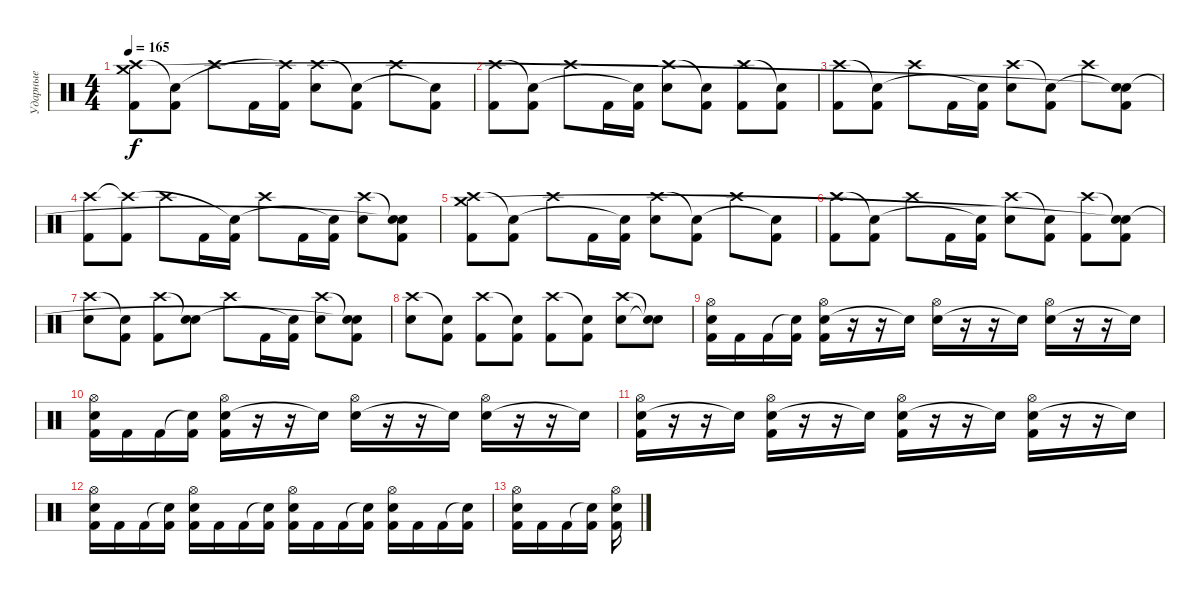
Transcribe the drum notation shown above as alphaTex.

\track ("Ударные" "Ударные") {instrument percussion}
\staff {score}
\articulation defaults
\ts (4 4)
\tempo 165
\clef neutral
\ks c
("Kick (hit) 2" "Crash high (hit)" "Crash medium (hit)").8{dy f} ("Kick (hit) 2" "Snare (hit)"{t}).8 "Crash high (hit)".8 "Kick (hit) 2".16 ("Kick (hit) 2" "Crash high (hit)"{t}).16 ("Electric Snare (hit)" "Crash high (hit)").8 ("Kick (hit) 2" "Snare (hit)"{t}).8 "Crash high (hit)".8 ("Kick (hit) 2" "Snare (hit)"{t}).8 |
("Kick (hit) 2" "Crash high (hit)").8 ("Kick (hit) 2" "Snare (hit)"{t}).8 "Crash high (hit)".8 "Kick (hit) 2".16 ("Kick (hit) 2" "Snare (hit)"{t}).16 ("Electric Snare (hit)" "Crash high (hit)").8 ("Kick (hit) 2" "Snare (hit)"{t}).8 ("Kick (hit) 2" "Crash high (hit)").8 ("Kick (hit) 2" "Snare (hit)"{t}).8 |
("Kick (hit) 2" "Crash high (hit)").8 ("Kick (hit) 2" "Snare (hit)"{t}).8 "Crash high (hit)".8 "Kick (hit) 2".16 ("Kick (hit) 2" "Snare (hit)"{t}).16 ("Electric Snare (hit)" "Crash high (hit)").8 ("Kick (hit) 2" "Snare (hit)"{t}).8 "Crash high (hit)".8 ("Kick (hit) 2" "Snare (hit)"{t} "Snare (hit)"{t}).8 |
("Kick (hit) 2" "Crash high (hit)").8 ("Kick (hit) 2" "Crash high (hit)"{t}).8 "Crash high (hit)".8 "Kick (hit) 2".16 ("Kick (hit) 2" "Snare (hit)"{t}).16 "Crash high (hit)".8 "Kick (hit) 2".16 ("Kick (hit) 2" "Snare (hit)"{t}).16 ("Electric Snare (hit)" "Crash high (hit)").8 ("Kick (hit) 2" "Snare (hit)"{t} "Snare (hit)"{t}).8 |
("Kick (hit) 2" "Crash high (hit)" "Crash medium (hit)").8 ("Kick (hit) 2" "Snare (hit)"{t}).8 "Crash high (hit)".8 "Kick (hit) 2".16 ("Kick (hit) 2" "Snare (hit)"{t}).16 ("Electric Snare (hit)" "Crash high (hit)").8 ("Kick (hit) 2" "Snare (hit)"{t}).8 "Crash high (hit)".8 ("Kick (hit) 2" "Snare (hit)"{t}).8 |
("Kick (hit) 2" "Crash high (hit)").8 ("Kick (hit) 2" "Snare (hit)"{t}).8 "Crash high (hit)".8 "Kick (hit) 2".16 ("Kick (hit) 2" "Snare (hit)"{t}).16 ("Electric Snare (hit)" "Crash high (hit)").8 ("Kick (hit) 2" "Snare (hit)"{t}).8 ("Kick (hit) 2" "Crash high (hit)").8 ("Kick (hit) 2" "Snare (hit)"{t} "Snare (hit)"{t}).8 |
("Electric Snare (hit)" "Crash high (hit)").8 ("Kick (hit) 2" "Snare (hit)"{t}).8 ("Kick (hit) 2" "Crash high (hit)").8 ("Electric Snare (hit)" "Snare (hit)"{t}).8 "Crash high (hit)".8 "Kick (hit) 2".16 ("Kick (hit) 2" "Snare (hit)"{t}).16 ("Electric Snare (hit)" "Crash high (hit)").8 ("Kick (hit) 2" "Snare (hit)"{t} "Snare (hit)"{t}).8 |
("Electric Snare (hit)" "Crash high (hit)").8 ("Kick (hit) 2" "Snare (hit)"{t}).8 ("Kick (hit) 2" "Crash high (hit)").8 ("Kick (hit) 2" "Snare (hit)"{t}).8 ("Kick (hit) 2" "Crash high (hit)").8 ("Kick (hit) 2" "Snare (hit)"{t}).8 ("Electric Snare (hit)" "Crash high (hit)").8 ("Snare (hit)"{t} "Snare (hit)"{t}).8 |
("Electric Snare (hit)" "Hi-Hat (open)" "Kick (hit) 2").16 "Kick (hit) 2".16 "Kick (hit) 2".16 ("Snare (hit)"{t} "Kick (hit) 2").16 ("Electric Snare (hit)" "Hi-Hat (open)" "Kick (hit) 2").16 r.16 r.16 "Snare (hit)"{t}.16 ("Electric Snare (hit)" "Hi-Hat (open)").16 r.16 r.16 "Snare (hit)"{t}.16 ("Electric Snare (hit)" "Hi-Hat (open)").16 r.16 r.16 "Snare (hit)"{t}.16 |
("Electric Snare (hit)" "Hi-Hat (open)" "Kick (hit) 2").16 "Kick (hit) 2".16 "Kick (hit) 2".16 ("Snare (hit)"{t} "Kick (hit) 2").16 ("Electric Snare (hit)" "Hi-Hat (open)" "Kick (hit) 2").16 r.16 r.16 "Snare (hit)"{t}.16 ("Electric Snare (hit)" "Hi-Hat (open)").16 r.16 r.16 "Snare (hit)"{t}.16 ("Electric Snare (hit)" "Hi-Hat (open)").16 r.16 r.16 "Snare (hit)"{t}.16 |
("Electric Snare (hit)" "Hi-Hat (open)" "Kick (hit) 2").16 r.16 r.16 "Snare (hit)"{t}.16 ("Electric Snare (hit)" "Hi-Hat (open)" "Kick (hit) 2").16 r.16 r.16 "Snare (hit)"{t}.16 ("Electric Snare (hit)" "Hi-Hat (open)" "Kick (hit) 2").16 r.16 r.16 "Snare (hit)"{t}.16 ("Electric Snare (hit)" "Hi-Hat (open)" "Kick (hit) 2").16 r.16 r.16 "Snare (hit)"{t}.16 |
("Electric Snare (hit)" "Hi-Hat (open)" "Kick (hit) 2").16 "Kick (hit) 2".16 "Kick (hit) 2".16 ("Snare (hit)"{t} "Kick (hit) 2").16 ("Electric Snare (hit)" "Hi-Hat (open)" "Kick (hit) 2").16 "Kick (hit) 2".16 "Kick (hit) 2".16 ("Snare (hit)"{t} "Kick (hit) 2").16 ("Electric Snare (hit)" "Hi-Hat (open)" "Kick (hit) 2").16 "Kick (hit) 2".16 "Kick (hit) 2".16 ("Snare (hit)"{t} "Kick (hit) 2").16 ("Electric Snare (hit)" "Hi-Hat (open)" "Kick (hit) 2").16 "Kick (hit) 2".16 "Kick (hit) 2".16 ("Snare (hit)"{t} "Kick (hit) 2").16 |
("Electric Snare (hit)" "Hi-Hat (open)" "Kick (hit) 2").16 "Kick (hit) 2".16 "Kick (hit) 2".16 ("Snare (hit)"{t} "Kick (hit) 2").16 ("Electric Snare (hit)" "Hi-Hat (open)" "Kick (hit) 2").16
